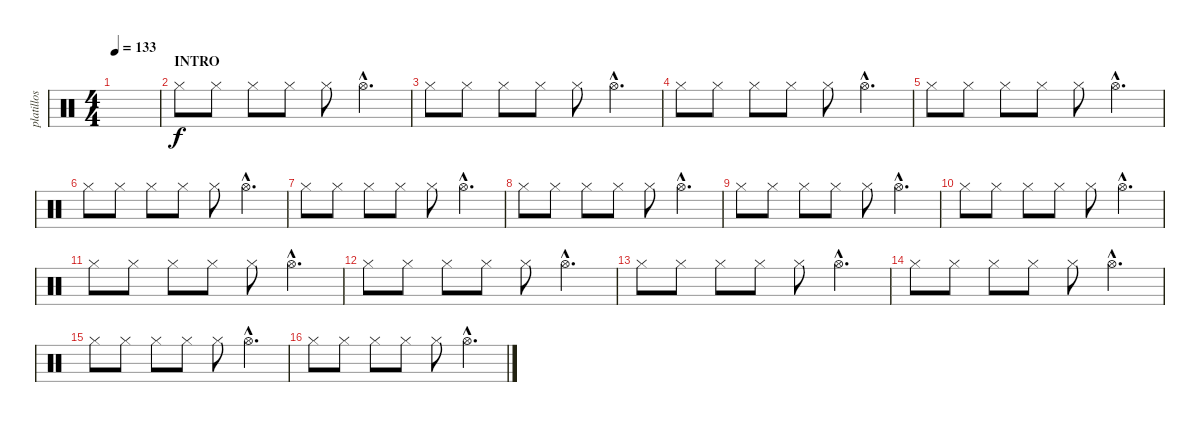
\track ("platillos" "platillos") {instrument percussion}
\staff {score}
\articulation defaults
\ts (4 4)
\tempo 133
\clef neutral
\ks c
|
\section ("" "INTRO")
"Hi-Hat (closed)".8 "Hi-Hat (closed)".8 "Hi-Hat (closed)".8 "Hi-Hat (closed)".8 "Hi-Hat (closed)".8 "Hi-Hat (open)"{hac}.4{d} |
"Hi-Hat (closed)".8 "Hi-Hat (closed)".8 "Hi-Hat (closed)".8 "Hi-Hat (closed)".8 "Hi-Hat (closed)".8 "Hi-Hat (open)"{hac}.4{d} |
"Hi-Hat (closed)".8 "Hi-Hat (closed)".8 "Hi-Hat (closed)".8 "Hi-Hat (closed)".8 "Hi-Hat (closed)".8 "Hi-Hat (open)"{hac}.4{d} |
"Hi-Hat (closed)".8 "Hi-Hat (closed)".8 "Hi-Hat (closed)".8 "Hi-Hat (closed)".8 "Hi-Hat (closed)".8 "Hi-Hat (open)"{hac}.4{d} |
"Hi-Hat (closed)".8 "Hi-Hat (closed)".8 "Hi-Hat (closed)".8 "Hi-Hat (closed)".8 "Hi-Hat (closed)".8 "Hi-Hat (open)"{hac}.4{d} |
"Hi-Hat (closed)".8 "Hi-Hat (closed)".8 "Hi-Hat (closed)".8 "Hi-Hat (closed)".8 "Hi-Hat (closed)".8 "Hi-Hat (open)"{hac}.4{d} |
"Hi-Hat (closed)".8 "Hi-Hat (closed)".8 "Hi-Hat (closed)".8 "Hi-Hat (closed)".8 "Hi-Hat (closed)".8 "Hi-Hat (open)"{hac}.4{d} |
"Hi-Hat (closed)".8 "Hi-Hat (closed)".8 "Hi-Hat (closed)".8 "Hi-Hat (closed)".8 "Hi-Hat (closed)".8 "Hi-Hat (open)"{hac}.4{d} |
"Hi-Hat (closed)".8 "Hi-Hat (closed)".8 "Hi-Hat (closed)".8 "Hi-Hat (closed)".8 "Hi-Hat (closed)".8 "Hi-Hat (open)"{hac}.4{d} |
"Hi-Hat (closed)".8 "Hi-Hat (closed)".8 "Hi-Hat (closed)".8 "Hi-Hat (closed)".8 "Hi-Hat (closed)".8 "Hi-Hat (open)"{hac}.4{d} |
"Hi-Hat (closed)".8 "Hi-Hat (closed)".8 "Hi-Hat (closed)".8 "Hi-Hat (closed)".8 "Hi-Hat (closed)".8 "Hi-Hat (open)"{hac}.4{d} |
"Hi-Hat (closed)".8 "Hi-Hat (closed)".8 "Hi-Hat (closed)".8 "Hi-Hat (closed)".8 "Hi-Hat (closed)".8 "Hi-Hat (open)"{hac}.4{d} |
"Hi-Hat (closed)".8 "Hi-Hat (closed)".8 "Hi-Hat (closed)".8 "Hi-Hat (closed)".8 "Hi-Hat (closed)".8 "Hi-Hat (open)"{hac}.4{d} |
"Hi-Hat (closed)".8 "Hi-Hat (closed)".8 "Hi-Hat (closed)".8 "Hi-Hat (closed)".8 "Hi-Hat (closed)".8 "Hi-Hat (open)"{hac}.4{d} |
"Hi-Hat (closed)".8 "Hi-Hat (closed)".8 "Hi-Hat (closed)".8 "Hi-Hat (closed)".8 "Hi-Hat (closed)".8 "Hi-Hat (open)"{hac}.4{d}
